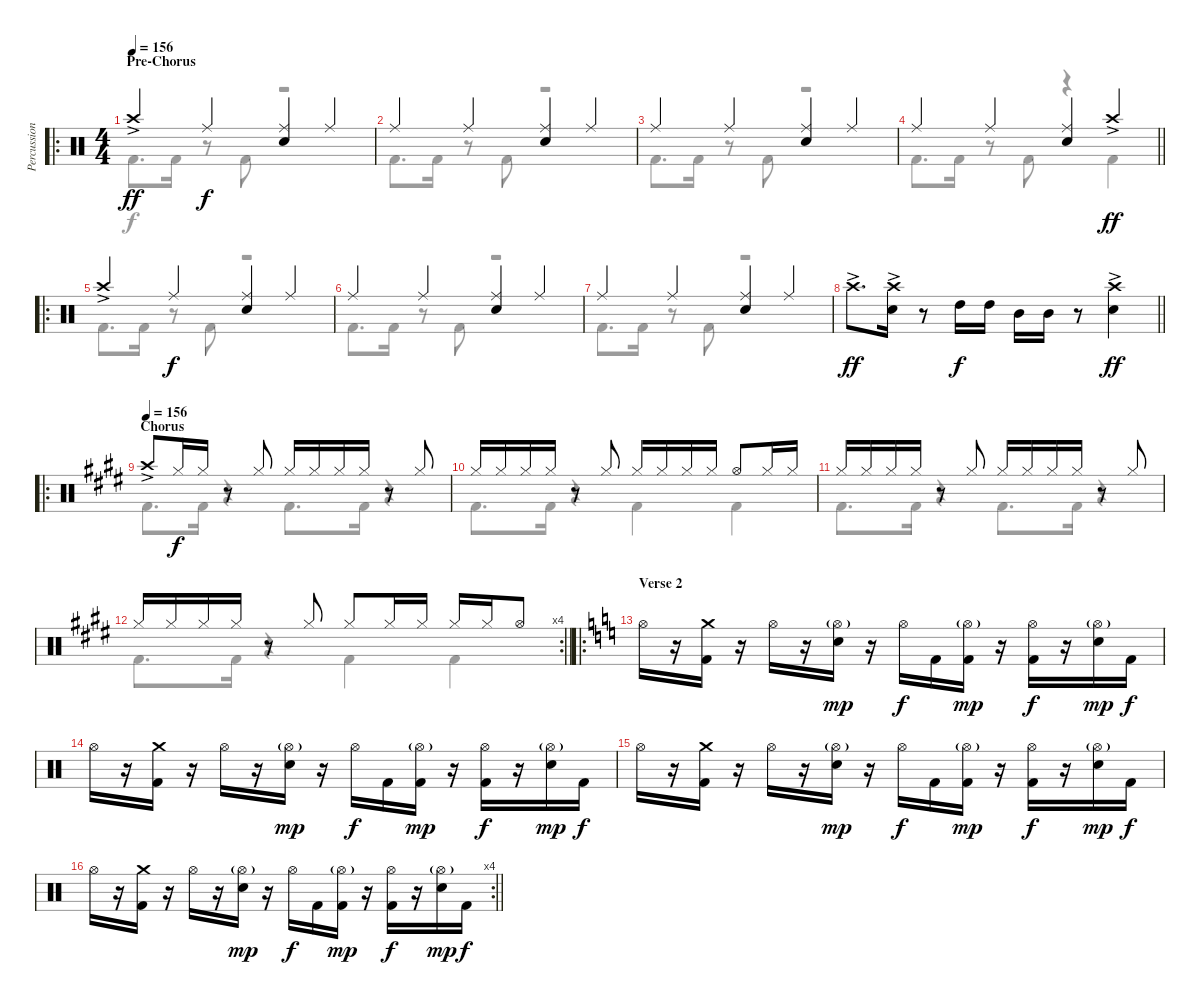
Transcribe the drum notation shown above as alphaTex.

\track ("Percussion" "Percussion") {instrument percussion}
\staff {score}
\articulation defaults
\voice
\ro
\ts (4 4)
\section ("" "Pre-Chorus")
\tempo 156
\clef neutral
\ks c "Crash high (hit)"{ac}.4{dy ff} "Ride (middle)".4{dy f}
("Ride (middle)" "Snare (hit) 2").4 "Ride (middle)".4 |
"Ride (middle)".4 "Ride (middle)".4 ("Ride (middle)" "Snare (hit) 2").4 "Ride (middle)".4 |
"Ride (middle)".4 "Ride (middle)".4 ("Ride (middle)" "Snare (hit) 2").4 "Ride (middle)".4 |
\barLineRight lightlight "Ride (middle)".4 "Ride (middle)".4
("Ride (middle)" "Snare (hit) 2").4 "Crash high (hit)"{ac}.4{dy ff} |
\ro "Crash high (hit)"{ac}.4 "Ride (middle)".4{dy f}
("Ride (middle)" "Snare (hit) 2").4 "Ride (middle)".4 |
"Ride (middle)".4 "Ride (middle)".4 ("Ride (middle)" "Snare (hit) 2").4 "Ride (middle)".4 |
"Ride (middle)".4 "Ride (middle)".4 ("Ride (middle)" "Snare (hit) 2").4 "Ride (middle)".4 |
\barLineRight lightlight "Crash high (hit)"{ac}.8{d dy ff}
("Crash high (hit)"{ac} "Snare (hit) 2").16 r.8 "High Tom (hit)".16{dy f} "High Tom (hit)".16 "Mid Tom (hit)".16 "Mid Tom (hit)".16 r.8 ("Crash high (hit)"{ac} "Snare (hit) 2").4{dy ff} |
\ro
\section ("" "Chorus")
\tempo 156
\ks c#minor "Crash high (hit)"{ac}.8 "Hi-Hat (closed)".16{dy f} "Hi-Hat (closed)".16
r.8 "Hi-Hat (closed)".8 "Hi-Hat (closed)".16 "Hi-Hat (closed)".16 "Hi-Hat (closed)".16 "Hi-Hat (closed)".16 r.8 "Hi-Hat (closed)".8 |
"Hi-Hat (closed)".16 "Hi-Hat (closed)".16 "Hi-Hat (closed)".16 "Hi-Hat (closed)".16 r.8 "Hi-Hat (closed)".8 "Hi-Hat (closed)".16 "Hi-Hat (closed)".16 "Hi-Hat (closed)".16 "Hi-Hat (closed)".16 "Hi-Hat (open)".8 "Hi-Hat (closed)".16 "Hi-Hat (closed)".16 |
"Hi-Hat (closed)".16 "Hi-Hat (closed)".16 "Hi-Hat (closed)".16 "Hi-Hat (closed)".16 r.8 "Hi-Hat (closed)".8 "Hi-Hat (closed)".16 "Hi-Hat (closed)".16 "Hi-Hat (closed)".16 "Hi-Hat (closed)".16 r.8 "Hi-Hat (closed)".8 |
\rc 4
\barLineRight lightlight "Hi-Hat (closed)".16 "Hi-Hat (closed)".16 "Hi-Hat (closed)".16 "Hi-Hat (closed)".16
r.8 "Hi-Hat (closed)".8 "Hi-Hat (closed)".8 "Hi-Hat (closed)".16 "Hi-Hat (closed)".16 "Hi-Hat (closed)".16 "Hi-Hat (closed)".16 "Hi-Hat (open)".8 |
\ro
\section ("" "Verse 2")
\ks c "Hi-Hat (open)".16
r.16 ("Crash medium (hit)" "Kick (hit) 2").16 r.16 "Hi-Hat (open)".16 r.16 ("Hi-Hat (open)"{g} "Electric Snare (hit)").16{dy mp} r.16 "Hi-Hat (open)".16{dy f} "Kick (hit) 2".16 ("Hi-Hat (open)"{g} "Kick (hit) 2").16{dy mp} r.16 ("Hi-Hat (open)" "Kick (hit) 2").16{dy f} r.16 ("Hi-Hat (open)"{g} "Electric Snare (hit)").16{dy mp} "Kick (hit) 2".16{dy f} |
"Hi-Hat (open)".16 r.16 ("Crash medium (hit)" "Kick (hit) 2").16 r.16 "Hi-Hat (open)".16 r.16 ("Hi-Hat (open)"{g} "Electric Snare (hit)").16{dy mp} r.16 "Hi-Hat (open)".16{dy f} "Kick (hit) 2".16 ("Hi-Hat (open)"{g} "Kick (hit) 2").16{dy mp} r.16 ("Hi-Hat (open)" "Kick (hit) 2").16{dy f} r.16 ("Hi-Hat (open)"{g} "Electric Snare (hit)").16{dy mp} "Kick (hit) 2".16{dy f} |
"Hi-Hat (open)".16 r.16 ("Crash medium (hit)" "Kick (hit) 2").16 r.16 "Hi-Hat (open)".16 r.16 ("Hi-Hat (open)"{g} "Electric Snare (hit)").16{dy mp} r.16 "Hi-Hat (open)".16{dy f} "Kick (hit) 2".16 ("Hi-Hat (open)"{g} "Kick (hit) 2").16{dy mp} r.16 ("Hi-Hat (open)" "Kick (hit) 2").16{dy f} r.16 ("Hi-Hat (open)"{g} "Electric Snare (hit)").16{dy mp} "Kick (hit) 2".16{dy f} |
\rc 4
\barLineRight lightlight "Hi-Hat (open)".16
r.16 ("Crash medium (hit)" "Kick (hit) 2").16 r.16 "Hi-Hat (open)".16 r.16 ("Hi-Hat (open)"{g} "Electric Snare (hit)").16{dy mp} r.16 "Hi-Hat (open)".16{dy f} "Kick (hit) 2".16 ("Hi-Hat (open)"{g} "Kick (hit) 2").16{dy mp} r.16 ("Hi-Hat (open)" "Kick (hit) 2").16{dy f} r.16 ("Hi-Hat (open)"{g} "Electric Snare (hit)").16{dy mp} "Kick (hit) 2".16{dy f}
\voice
\clef neutral
\ottava regular
\simile none
\ks c "Kick (hit) 2".8{d dy f} "Kick (hit) 2".16
r.8 "Kick (hit) 2".8 r.2 |
"Kick (hit) 2".8{d} "Kick (hit) 2".16 r.8 "Kick (hit) 2".8 r.2 |
"Kick (hit) 2".8{d} "Kick (hit) 2".16 r.8 "Kick (hit) 2".8 r.2 |
\barLineRight lightlight "Kick (hit) 2".8{d} "Kick (hit) 2".16
r.8 "Kick (hit) 2".8 r.4 "Kick (hit) 2".4 |
"Kick (hit) 2".8{d} "Kick (hit) 2".16 r.8 "Kick (hit) 2".8 r.2 |
"Kick (hit) 2".8{d} "Kick (hit) 2".16 r.8 "Kick (hit) 2".8 r.2 |
"Kick (hit) 2".8{d} "Kick (hit) 2".16 r.8 "Kick (hit) 2".8 r.2 |
\barLineRight lightlight
|
\ks c#minor "Kick (hit) 2".8{d} "Kick (hit) 2".16
r.4 "Kick (hit) 2".8{d} "Kick (hit) 2".16 r.4 |
"Kick (hit) 2".8{d} "Kick (hit) 2".16 r.4 "Kick (hit) 2".4 "Kick (hit) 2".4 |
"Kick (hit) 2".8{d} "Kick (hit) 2".16 r.4 "Kick (hit) 2".8{d} "Kick (hit) 2".16 r.4 |
\barLineRight lightlight "Kick (hit) 2".8{d} "Kick (hit) 2".16
r.4 "Kick (hit) 2".4 "Kick (hit) 2".4 |
\ks c
|
|
|
\barLineRight lightlight
